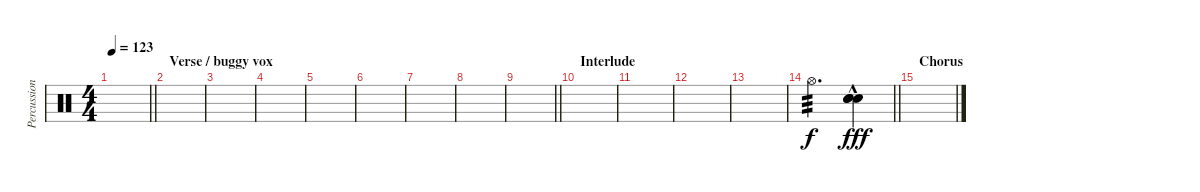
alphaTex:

\track ("Percussion" "Percussion") {instrument percussion}
\staff {score}
\articulation defaults
\ts (4 4)
\tempo 123
\clef neutral
\barLineRight lightlight
\ks c
|
\section ("" "Verse / buggy vox")
|
|
|
|
|
|
|
\barLineRight lightlight
|
\section ("" "Interlude")
|
|
|
|
\barLineRight lightlight "Hi-Hat (open)".2{d tp 3 volume 11}
("Snare (hit) 2"{hac} "Snare (hit) 2"{hac} "Snare (hit) 2"{hac}).4{dy fff} |
\section ("" "Chorus")
